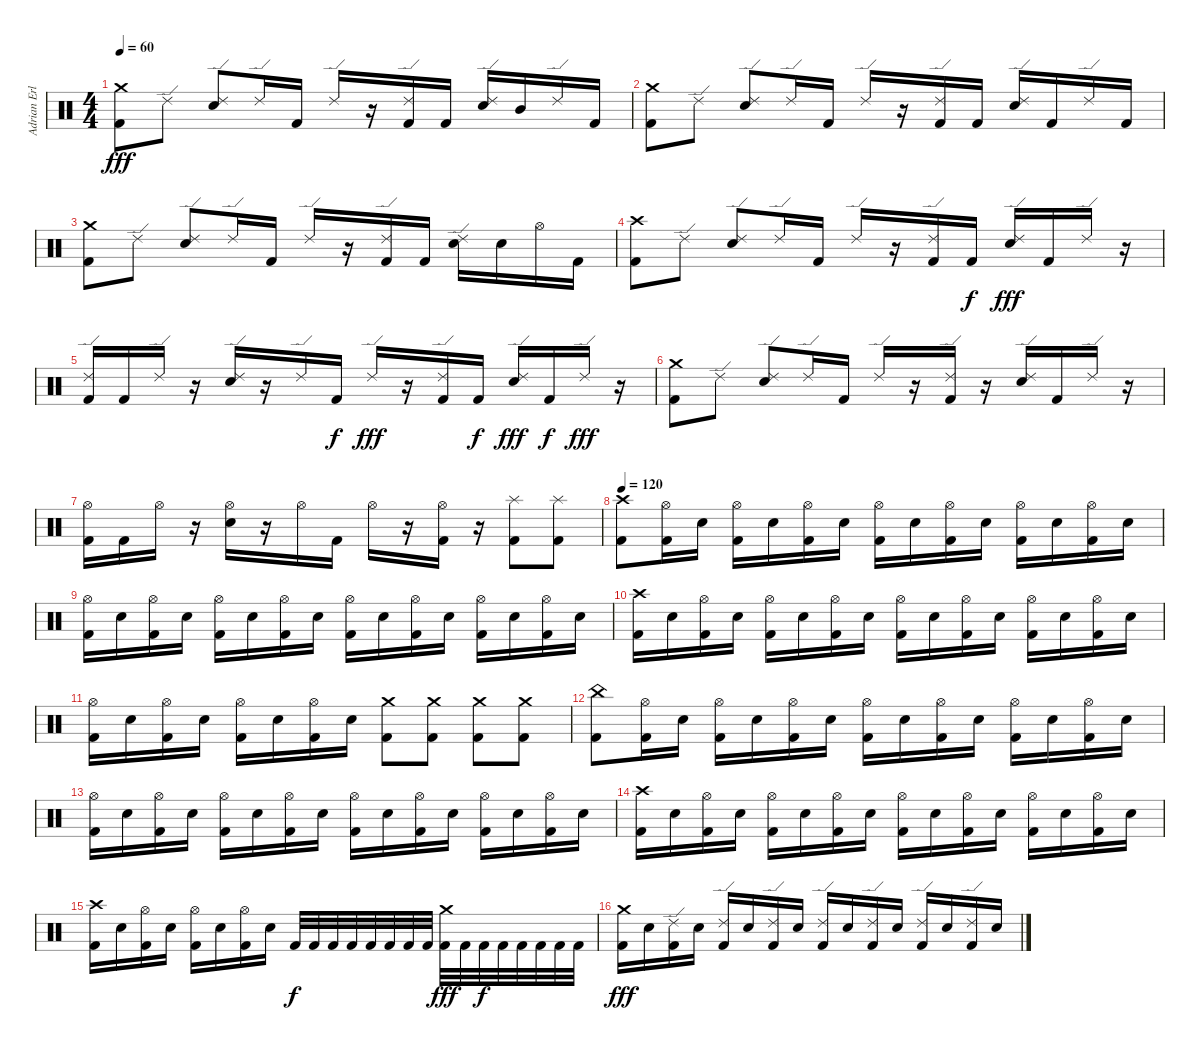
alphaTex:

\track ("Adrian Erlandsson" "Adrian Erl") {instrument percussion}
\staff {score}
\articulation defaults
\ts (4 4)
\tempo 60
\clef neutral
\ks c
("Crash medium (hit)" "Kick (hit) 2").8{dy fff} "Ride (edge) 2".8 ("Ride (edge) 2" "Electric Snare (hit)").8 "Ride (edge) 2".16 "Kick (hit) 2".16 "Ride (edge) 2".16 r.16 ("Ride (edge) 2" "Kick (hit) 2").16 "Kick (hit) 2".16 ("Ride (edge) 2" "Electric Snare (hit)").16 "Mid Tom (hit)".16 "Ride (edge) 2".16 "Kick (hit) 2".16 |
("Crash medium (hit)" "Kick (hit) 2").8 "Ride (edge) 2".8 ("Ride (edge) 2" "Electric Snare (hit)").8 "Ride (edge) 2".16 "Kick (hit) 2".16 "Ride (edge) 2".16 r.16 ("Ride (edge) 2" "Kick (hit) 2").16 "Kick (hit) 2".16 ("Ride (edge) 2" "Electric Snare (hit)").16 "Kick (hit) 2".16 "Ride (edge) 2".16 "Kick (hit) 2".16 |
("Crash medium (hit)" "Kick (hit) 2").8 "Ride (edge) 2".8 ("Ride (edge) 2" "Electric Snare (hit)").8 "Ride (edge) 2".16 "Kick (hit) 2".16 "Ride (edge) 2".16 r.16 ("Ride (edge) 2" "Kick (hit) 2").16 "Kick (hit) 2".16 ("Ride (edge) 2" "Electric Snare (hit)").16 "Electric Snare (hit)".16 "Hi-Hat (open)".16 "Kick (hit) 2".16 |
("Crash high (hit)" "Kick (hit) 2").8 "Ride (edge) 2".8 ("Ride (edge) 2" "Electric Snare (hit)").8 "Ride (edge) 2".16 "Kick (hit) 2".16 "Ride (edge) 2".16 r.16 ("Ride (edge) 2" "Kick (hit) 2").16 "Kick (hit) 2".16{dy f} ("Ride (edge) 2" "Electric Snare (hit)").16{dy fff} "Kick (hit) 2".16 "Ride (edge) 2".16 r.16 |
("Ride (edge) 2" "Kick (hit) 2").16 "Kick (hit) 2".16 "Ride (edge) 2".16 r.16 ("Ride (edge) 2" "Electric Snare (hit)").16 r.16 "Ride (edge) 2".16 "Kick (hit) 2".16{dy f} "Ride (edge) 2".16{dy fff} r.16 ("Ride (edge) 2" "Kick (hit) 2").16 "Kick (hit) 2".16{dy f} ("Ride (edge) 2" "Electric Snare (hit)").16{dy fff} "Kick (hit) 2".16{dy f} "Ride (edge) 2".16{dy fff} r.16 |
("Crash medium (hit)" "Kick (hit) 2").8 "Ride (edge) 2".8 ("Ride (edge) 2" "Electric Snare (hit)").8 "Ride (edge) 2".16 "Kick (hit) 2".16 "Ride (edge) 2".16 r.16 ("Ride (edge) 2" "Kick (hit) 2").16 r.16 ("Ride (edge) 2" "Electric Snare (hit)").16 "Kick (hit) 2".16 "Ride (edge) 2".16 r.16 |
("Hi-Hat (open)" "Kick (hit) 2").16 "Kick (hit) 2".16 "Hi-Hat (open)".16 r.16 ("Hi-Hat (open)" "Electric Snare (hit)").16 r.16 "Hi-Hat (open)".16 "Kick (hit) 2".16 "Hi-Hat (open)".16 r.16 ("Hi-Hat (open)" "Kick (hit) 2").16 r.16 ("Splash (hit)" "Kick (hit) 2").8 ("Splash (hit)" "Kick (hit) 2").8 |
\tempo 120
("Crash high (hit)" "Kick (hit) 2").8 ("Hi-Hat (open)" "Kick (hit) 2").16 "Electric Snare (hit)".16 ("Hi-Hat (open)" "Kick (hit) 2").16 "Electric Snare (hit)".16 ("Hi-Hat (open)" "Kick (hit) 2").16 "Electric Snare (hit)".16 ("Hi-Hat (open)" "Kick (hit) 2").16 "Electric Snare (hit)".16 ("Hi-Hat (open)" "Kick (hit) 2").16 "Electric Snare (hit)".16 ("Hi-Hat (open)" "Kick (hit) 2").16 "Electric Snare (hit)".16 ("Hi-Hat (open)" "Kick (hit) 2").16 "Electric Snare (hit)".16 |
("Hi-Hat (open)" "Kick (hit) 2").16 "Electric Snare (hit)".16 ("Hi-Hat (open)" "Kick (hit) 2").16 "Electric Snare (hit)".16 ("Hi-Hat (open)" "Kick (hit) 2").16 "Electric Snare (hit)".16 ("Hi-Hat (open)" "Kick (hit) 2").16 "Electric Snare (hit)".16 ("Hi-Hat (open)" "Kick (hit) 2").16 "Electric Snare (hit)".16 ("Hi-Hat (open)" "Kick (hit) 2").16 "Electric Snare (hit)".16 ("Hi-Hat (open)" "Kick (hit) 2").16 "Electric Snare (hit)".16 ("Hi-Hat (open)" "Kick (hit) 2").16 "Electric Snare (hit)".16 |
("Crash high (hit)" "Kick (hit) 2").16 "Electric Snare (hit)".16 ("Hi-Hat (open)" "Kick (hit) 2").16 "Electric Snare (hit)".16 ("Hi-Hat (open)" "Kick (hit) 2").16 "Electric Snare (hit)".16 ("Hi-Hat (open)" "Kick (hit) 2").16 "Electric Snare (hit)".16 ("Hi-Hat (open)" "Kick (hit) 2").16 "Electric Snare (hit)".16 ("Hi-Hat (open)" "Kick (hit) 2").16 "Electric Snare (hit)".16 ("Hi-Hat (open)" "Kick (hit) 2").16 "Electric Snare (hit)".16 ("Hi-Hat (open)" "Kick (hit) 2").16 "Electric Snare (hit)".16 |
("Hi-Hat (open)" "Kick (hit) 2").16 "Electric Snare (hit)".16 ("Hi-Hat (open)" "Kick (hit) 2").16 "Electric Snare (hit)".16 ("Hi-Hat (open)" "Kick (hit) 2").16 "Electric Snare (hit)".16 ("Hi-Hat (open)" "Kick (hit) 2").16 "Electric Snare (hit)".16 ("Crash medium (hit)" "Kick (hit) 2").8 ("Crash medium (hit)" "Kick (hit) 2").8 ("Crash medium (hit)" "Kick (hit) 2").8 ("Crash medium (hit)" "Kick (hit) 2").8 |
("China (hit)" "Kick (hit) 2").8 ("Hi-Hat (open)" "Kick (hit) 2").16 "Electric Snare (hit)".16 ("Hi-Hat (open)" "Kick (hit) 2").16 "Electric Snare (hit)".16 ("Hi-Hat (open)" "Kick (hit) 2").16 "Electric Snare (hit)".16 ("Hi-Hat (open)" "Kick (hit) 2").16 "Electric Snare (hit)".16 ("Hi-Hat (open)" "Kick (hit) 2").16 "Electric Snare (hit)".16 ("Hi-Hat (open)" "Kick (hit) 2").16 "Electric Snare (hit)".16 ("Hi-Hat (open)" "Kick (hit) 2").16 "Electric Snare (hit)".16 |
("Hi-Hat (open)" "Kick (hit) 2").16 "Electric Snare (hit)".16 ("Hi-Hat (open)" "Kick (hit) 2").16 "Electric Snare (hit)".16 ("Hi-Hat (open)" "Kick (hit) 2").16 "Electric Snare (hit)".16 ("Hi-Hat (open)" "Kick (hit) 2").16 "Electric Snare (hit)".16 ("Hi-Hat (open)" "Kick (hit) 2").16 "Electric Snare (hit)".16 ("Hi-Hat (open)" "Kick (hit) 2").16 "Electric Snare (hit)".16 ("Hi-Hat (open)" "Kick (hit) 2").16 "Electric Snare (hit)".16 ("Hi-Hat (open)" "Kick (hit) 2").16 "Electric Snare (hit)".16 |
("Crash high (hit)" "Kick (hit) 2").16 "Electric Snare (hit)".16 ("Hi-Hat (open)" "Kick (hit) 2").16 "Electric Snare (hit)".16 ("Hi-Hat (open)" "Kick (hit) 2").16 "Electric Snare (hit)".16 ("Hi-Hat (open)" "Kick (hit) 2").16 "Electric Snare (hit)".16 ("Hi-Hat (open)" "Kick (hit) 2").16 "Electric Snare (hit)".16 ("Hi-Hat (open)" "Kick (hit) 2").16 "Electric Snare (hit)".16 ("Hi-Hat (open)" "Kick (hit) 2").16 "Electric Snare (hit)".16 ("Hi-Hat (open)" "Kick (hit) 2").16 "Electric Snare (hit)".16 |
("Crash high (hit)" "Kick (hit) 2").16 "Electric Snare (hit)".16 ("Hi-Hat (open)" "Kick (hit) 2").16 "Electric Snare (hit)".16 ("Hi-Hat (open)" "Kick (hit) 2").16 "Electric Snare (hit)".16 ("Hi-Hat (open)" "Kick (hit) 2").16 "Electric Snare (hit)".16 "Kick (hit) 2".32{dy f} "Kick (hit) 2".32 "Kick (hit) 2".32 "Kick (hit) 2".32 "Kick (hit) 2".32 "Kick (hit) 2".32 "Kick (hit) 2".32 "Kick (hit) 2".32 ("Crash medium (hit)" "Kick (hit) 2").32{dy fff} "Kick (hit) 2".32 "Kick (hit) 2".32{dy f} "Kick (hit) 2".32 "Kick (hit) 2".32 "Kick (hit) 2".32 "Kick (hit) 2".32 "Kick (hit) 2".32 |
("Crash medium (hit)" "Kick (hit) 2").16{dy fff} "Electric Snare (hit)".16 ("Ride (edge) 2" "Kick (hit) 2").16 "Electric Snare (hit)".16 ("Ride (edge) 2" "Kick (hit) 2").16 "Electric Snare (hit)".16 ("Ride (edge) 2" "Kick (hit) 2").16 "Electric Snare (hit)".16 ("Ride (edge) 2" "Kick (hit) 2").16 "Electric Snare (hit)".16 ("Ride (edge) 2" "Kick (hit) 2").16 "Electric Snare (hit)".16 ("Ride (edge) 2" "Kick (hit) 2").16 "Electric Snare (hit)".16 ("Ride (edge) 2" "Kick (hit) 2").16 "Electric Snare (hit)".16
